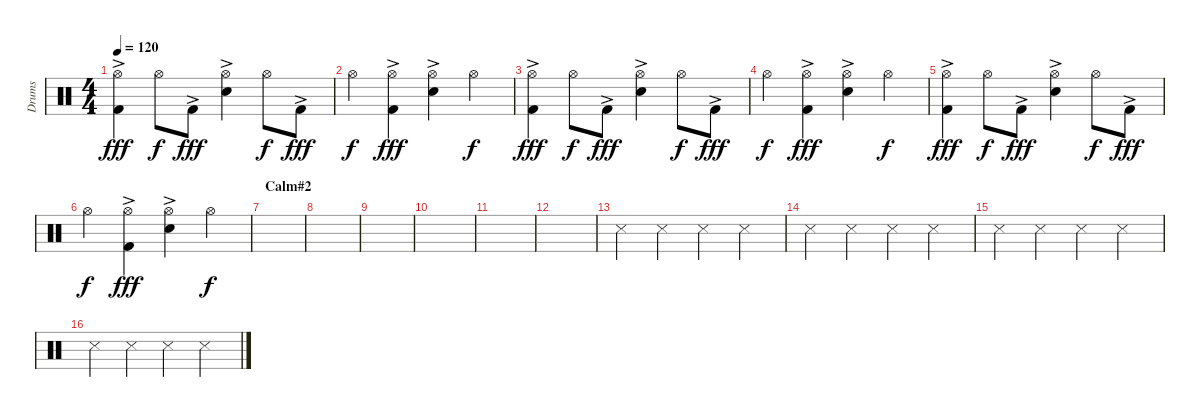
\track ("Drums" "Drums") {instrument percussion}
\staff {score}
\articulation defaults
\ts (4 4)
\tempo 120
\clef neutral
\ks c
("Hi-Hat (open)" "Kick (hit) 2"{ac}).4{dy fff} "Hi-Hat (open)".8{dy f} "Kick (hit) 2"{ac}.8{dy fff} ("Hi-Hat (open)" "Electric Snare (hit)"{ac}).4 "Hi-Hat (open)".8{dy f} "Kick (hit) 2"{ac}.8{dy fff} |
"Hi-Hat (open)".4{dy f} ("Hi-Hat (open)" "Kick (hit) 2"{ac}).4{dy fff} ("Hi-Hat (open)" "Electric Snare (hit)"{ac}).4 "Hi-Hat (open)".4{dy f} |
("Hi-Hat (open)" "Kick (hit) 2"{ac}).4{dy fff} "Hi-Hat (open)".8{dy f} "Kick (hit) 2"{ac}.8{dy fff} ("Hi-Hat (open)" "Electric Snare (hit)"{ac}).4 "Hi-Hat (open)".8{dy f} "Kick (hit) 2"{ac}.8{dy fff} |
"Hi-Hat (open)".4{dy f} ("Hi-Hat (open)" "Kick (hit) 2"{ac}).4{dy fff} ("Hi-Hat (open)" "Electric Snare (hit)"{ac}).4 "Hi-Hat (open)".4{dy f} |
("Hi-Hat (open)" "Kick (hit) 2"{ac}).4{dy fff} "Hi-Hat (open)".8{dy f} "Kick (hit) 2"{ac}.8{dy fff} ("Hi-Hat (open)" "Electric Snare (hit)"{ac}).4 "Hi-Hat (open)".8{dy f} "Kick (hit) 2"{ac}.8{dy fff} |
"Hi-Hat (open)".4{dy f} ("Hi-Hat (open)" "Kick (hit) 2"{ac}).4{dy fff} ("Hi-Hat (open)" "Electric Snare (hit)"{ac}).4 "Hi-Hat (open)".4{dy f} |
\section ("" "Calm#2")
|
|
|
|
|
|
"Metronome (hit)".4 "Metronome (hit)".4 "Metronome (hit)".4 "Metronome (hit)".4 |
"Metronome (hit)".4 "Metronome (hit)".4 "Metronome (hit)".4 "Metronome (hit)".4 |
"Metronome (hit)".4 "Metronome (hit)".4 "Metronome (hit)".4 "Metronome (hit)".4 |
"Metronome (hit)".4 "Metronome (hit)".4 "Metronome (hit)".4 "Metronome (hit)".4
